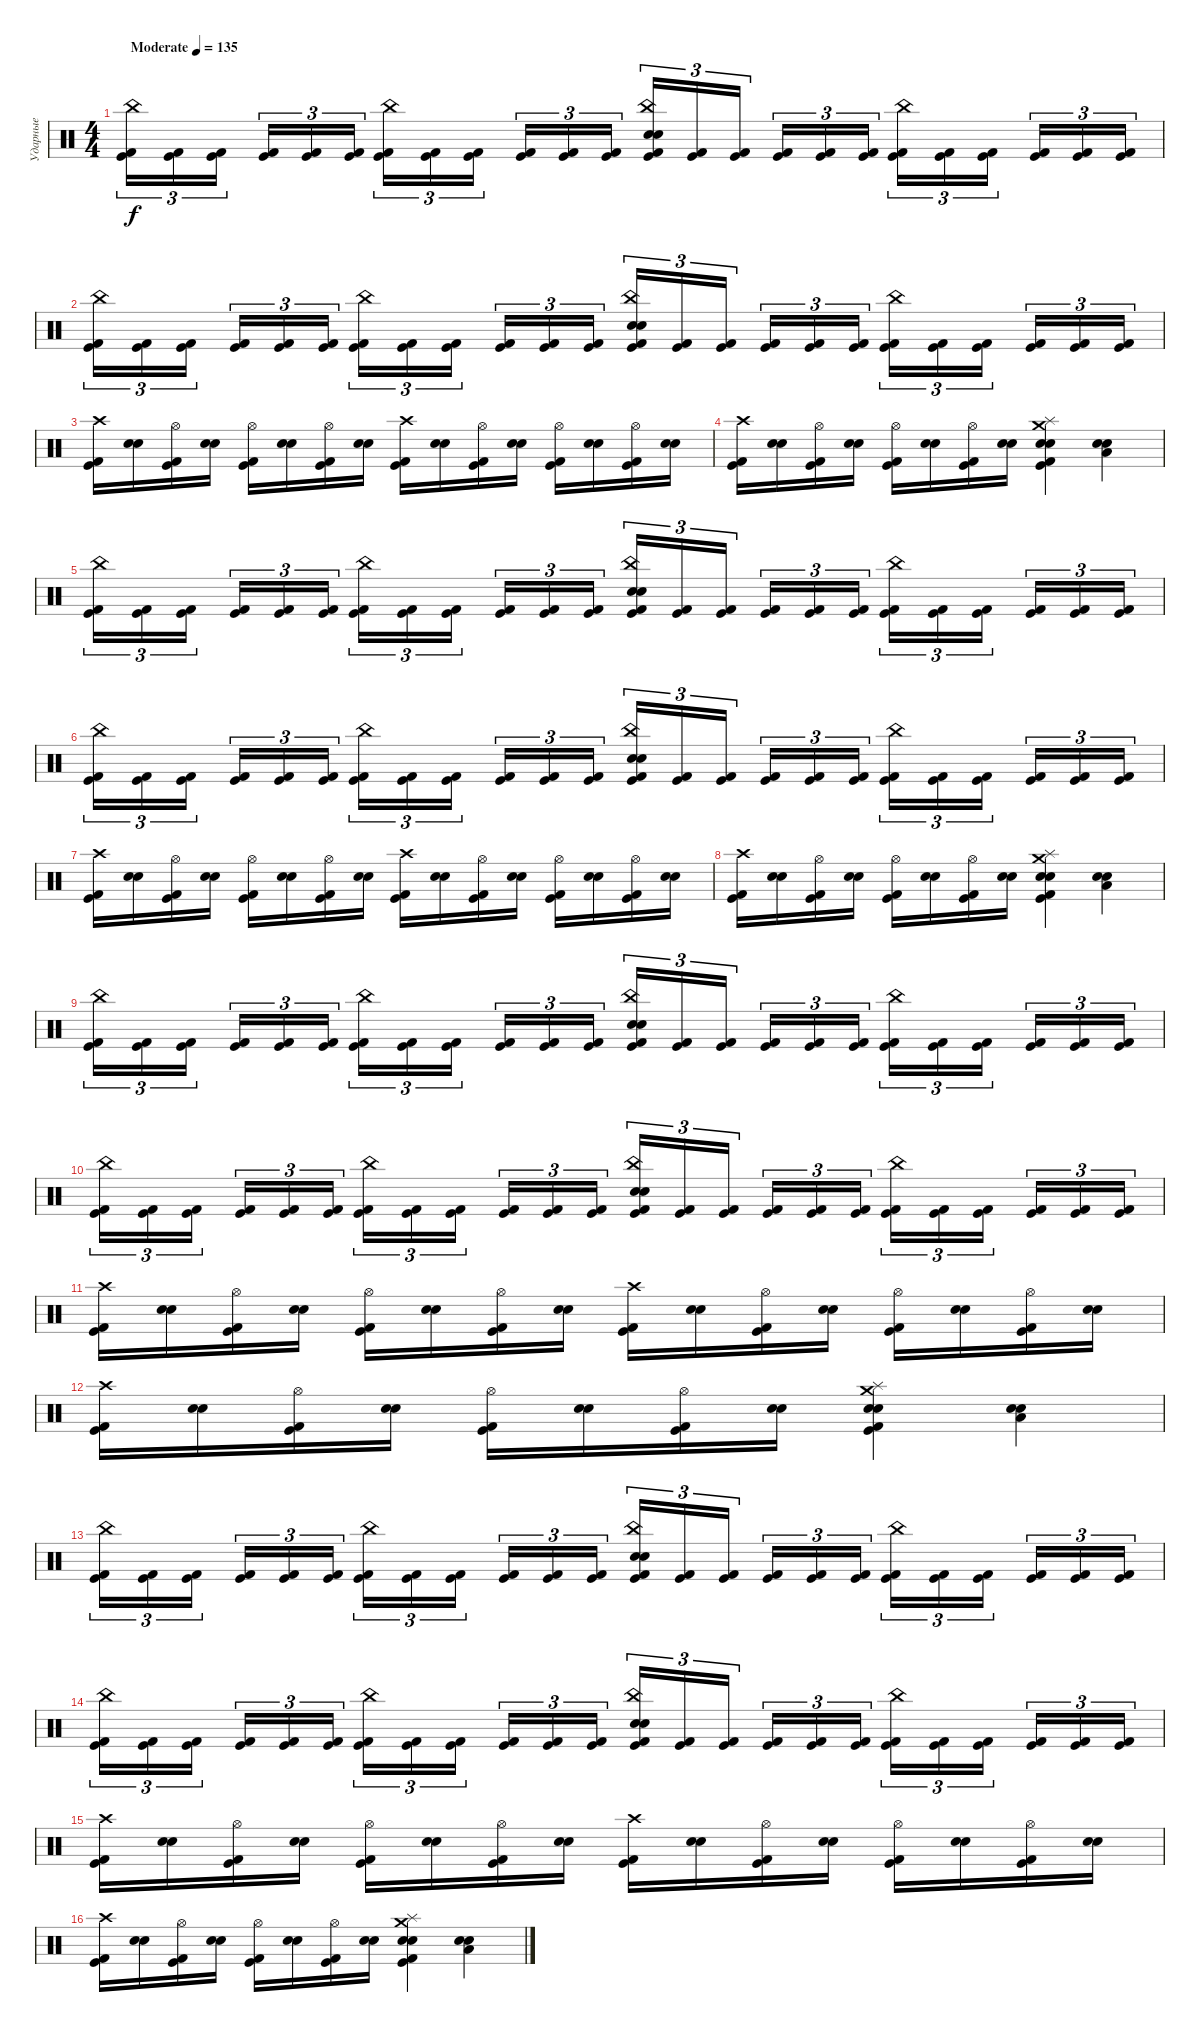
\track ("Ударные" "Ударные") {instrument percussion}
\staff {score}
\articulation defaults
\ts (4 4)
\tempo (135 "Moderate")
\clef neutral
\ks c
("Kick (hit) 2" "Kick (hit)" "China (hit)").16{tu (3 2) dy f} ("Kick (hit) 2" "Kick (hit)").16{tu (3 2)} ("Kick (hit) 2" "Kick (hit)").16{tu (3 2) beam splitsecondary} ("Kick (hit) 2" "Kick (hit)").16{tu (3 2)} ("Kick (hit) 2" "Kick (hit)").16{tu (3 2)} ("Kick (hit) 2" "Kick (hit)").16{tu (3 2)} ("Kick (hit) 2" "Kick (hit)" "China (hit)").16{tu (3 2)} ("Kick (hit) 2" "Kick (hit)").16{tu (3 2)} ("Kick (hit) 2" "Kick (hit)").16{tu (3 2) beam splitsecondary} ("Kick (hit) 2" "Kick (hit)").16{tu (3 2)} ("Kick (hit) 2" "Kick (hit)").16{tu (3 2)} ("Kick (hit) 2" "Kick (hit)").16{tu (3 2)} ("Kick (hit) 2" "Kick (hit)" "Electric Snare (hit)" "Snare (hit) 2" "China (hit)").16{tu (3 2)} ("Kick (hit) 2" "Kick (hit)").16{tu (3 2)} ("Kick (hit) 2" "Kick (hit)").16{tu (3 2) beam splitsecondary} ("Kick (hit) 2" "Kick (hit)").16{tu (3 2)} ("Kick (hit) 2" "Kick (hit)").16{tu (3 2)} ("Kick (hit) 2" "Kick (hit)").16{tu (3 2)} ("Kick (hit) 2" "Kick (hit)" "China (hit)").16{tu (3 2)} ("Kick (hit) 2" "Kick (hit)").16{tu (3 2)} ("Kick (hit) 2" "Kick (hit)").16{tu (3 2) beam splitsecondary} ("Kick (hit) 2" "Kick (hit)").16{tu (3 2)} ("Kick (hit) 2" "Kick (hit)").16{tu (3 2)} ("Kick (hit) 2" "Kick (hit)").16{tu (3 2)} |
("Kick (hit) 2" "Kick (hit)" "China (hit)").16{tu (3 2)} ("Kick (hit) 2" "Kick (hit)").16{tu (3 2)} ("Kick (hit) 2" "Kick (hit)").16{tu (3 2) beam splitsecondary} ("Kick (hit) 2" "Kick (hit)").16{tu (3 2)} ("Kick (hit) 2" "Kick (hit)").16{tu (3 2)} ("Kick (hit) 2" "Kick (hit)").16{tu (3 2)} ("Kick (hit) 2" "Kick (hit)" "China (hit)").16{tu (3 2)} ("Kick (hit) 2" "Kick (hit)").16{tu (3 2)} ("Kick (hit) 2" "Kick (hit)").16{tu (3 2) beam splitsecondary} ("Kick (hit) 2" "Kick (hit)").16{tu (3 2)} ("Kick (hit) 2" "Kick (hit)").16{tu (3 2)} ("Kick (hit) 2" "Kick (hit)").16{tu (3 2)} ("Kick (hit) 2" "Kick (hit)" "Electric Snare (hit)" "Snare (hit) 2" "China (hit)").16{tu (3 2)} ("Kick (hit) 2" "Kick (hit)").16{tu (3 2)} ("Kick (hit) 2" "Kick (hit)").16{tu (3 2) beam splitsecondary} ("Kick (hit) 2" "Kick (hit)").16{tu (3 2)} ("Kick (hit) 2" "Kick (hit)").16{tu (3 2)} ("Kick (hit) 2" "Kick (hit)").16{tu (3 2)} ("Kick (hit) 2" "Kick (hit)" "China (hit)").16{tu (3 2)} ("Kick (hit) 2" "Kick (hit)").16{tu (3 2)} ("Kick (hit) 2" "Kick (hit)").16{tu (3 2) beam splitsecondary} ("Kick (hit) 2" "Kick (hit)").16{tu (3 2)} ("Kick (hit) 2" "Kick (hit)").16{tu (3 2)} ("Kick (hit) 2" "Kick (hit)").16{tu (3 2)} |
("Kick (hit) 2" "Kick (hit)" "Crash high (hit)").16 ("Electric Snare (hit)" "Snare (hit) 2").16 ("Kick (hit) 2" "Kick (hit)" "Hi-Hat (open)").16 ("Electric Snare (hit)" "Snare (hit) 2").16 ("Kick (hit) 2" "Kick (hit)" "Hi-Hat (open)").16 ("Electric Snare (hit)" "Snare (hit) 2").16 ("Kick (hit) 2" "Kick (hit)" "Hi-Hat (open)").16 ("Electric Snare (hit)" "Snare (hit) 2").16 ("Kick (hit) 2" "Kick (hit)" "Crash high (hit)").16 ("Electric Snare (hit)" "Snare (hit) 2").16 ("Kick (hit) 2" "Kick (hit)" "Hi-Hat (open)").16 ("Electric Snare (hit)" "Snare (hit) 2").16 ("Kick (hit) 2" "Kick (hit)" "Hi-Hat (open)").16 ("Electric Snare (hit)" "Snare (hit) 2").16 ("Kick (hit) 2" "Kick (hit)" "Hi-Hat (open)").16 ("Electric Snare (hit)" "Snare (hit) 2").16 |
("Kick (hit) 2" "Kick (hit)" "Crash high (hit)").16 ("Electric Snare (hit)" "Snare (hit) 2").16 ("Kick (hit) 2" "Kick (hit)" "Hi-Hat (open)").16 ("Electric Snare (hit)" "Snare (hit) 2").16 ("Kick (hit) 2" "Kick (hit)" "Hi-Hat (open)").16 ("Electric Snare (hit)" "Snare (hit) 2").16 ("Kick (hit) 2" "Kick (hit)" "Hi-Hat (open)").16 ("Electric Snare (hit)" "Snare (hit) 2").16 ("Kick (hit)" "Kick (hit) 2" "Electric Snare (hit)" "Snare (hit) 2" "Splash (hit)" "Crash medium (hit)").4 ("Electric Snare (hit)" "Low Floor Tom (hit)" "Snare (hit) 2").4 |
("Kick (hit) 2" "Kick (hit)" "China (hit)").16{tu (3 2)} ("Kick (hit) 2" "Kick (hit)").16{tu (3 2)} ("Kick (hit) 2" "Kick (hit)").16{tu (3 2) beam splitsecondary} ("Kick (hit) 2" "Kick (hit)").16{tu (3 2)} ("Kick (hit) 2" "Kick (hit)").16{tu (3 2)} ("Kick (hit) 2" "Kick (hit)").16{tu (3 2)} ("Kick (hit) 2" "Kick (hit)" "China (hit)").16{tu (3 2)} ("Kick (hit) 2" "Kick (hit)").16{tu (3 2)} ("Kick (hit) 2" "Kick (hit)").16{tu (3 2) beam splitsecondary} ("Kick (hit) 2" "Kick (hit)").16{tu (3 2)} ("Kick (hit) 2" "Kick (hit)").16{tu (3 2)} ("Kick (hit) 2" "Kick (hit)").16{tu (3 2)} ("Kick (hit) 2" "Kick (hit)" "Electric Snare (hit)" "Snare (hit) 2" "China (hit)").16{tu (3 2)} ("Kick (hit) 2" "Kick (hit)").16{tu (3 2)} ("Kick (hit) 2" "Kick (hit)").16{tu (3 2) beam splitsecondary} ("Kick (hit) 2" "Kick (hit)").16{tu (3 2)} ("Kick (hit) 2" "Kick (hit)").16{tu (3 2)} ("Kick (hit) 2" "Kick (hit)").16{tu (3 2)} ("Kick (hit) 2" "Kick (hit)" "China (hit)").16{tu (3 2)} ("Kick (hit) 2" "Kick (hit)").16{tu (3 2)} ("Kick (hit) 2" "Kick (hit)").16{tu (3 2) beam splitsecondary} ("Kick (hit) 2" "Kick (hit)").16{tu (3 2)} ("Kick (hit) 2" "Kick (hit)").16{tu (3 2)} ("Kick (hit) 2" "Kick (hit)").16{tu (3 2)} |
("Kick (hit) 2" "Kick (hit)" "China (hit)").16{tu (3 2)} ("Kick (hit) 2" "Kick (hit)").16{tu (3 2)} ("Kick (hit) 2" "Kick (hit)").16{tu (3 2) beam splitsecondary} ("Kick (hit) 2" "Kick (hit)").16{tu (3 2)} ("Kick (hit) 2" "Kick (hit)").16{tu (3 2)} ("Kick (hit) 2" "Kick (hit)").16{tu (3 2)} ("Kick (hit) 2" "Kick (hit)" "China (hit)").16{tu (3 2)} ("Kick (hit) 2" "Kick (hit)").16{tu (3 2)} ("Kick (hit) 2" "Kick (hit)").16{tu (3 2) beam splitsecondary} ("Kick (hit) 2" "Kick (hit)").16{tu (3 2)} ("Kick (hit) 2" "Kick (hit)").16{tu (3 2)} ("Kick (hit) 2" "Kick (hit)").16{tu (3 2)} ("Kick (hit) 2" "Kick (hit)" "Electric Snare (hit)" "Snare (hit) 2" "China (hit)").16{tu (3 2)} ("Kick (hit) 2" "Kick (hit)").16{tu (3 2)} ("Kick (hit) 2" "Kick (hit)").16{tu (3 2) beam splitsecondary} ("Kick (hit) 2" "Kick (hit)").16{tu (3 2)} ("Kick (hit) 2" "Kick (hit)").16{tu (3 2)} ("Kick (hit) 2" "Kick (hit)").16{tu (3 2)} ("Kick (hit) 2" "Kick (hit)" "China (hit)").16{tu (3 2)} ("Kick (hit) 2" "Kick (hit)").16{tu (3 2)} ("Kick (hit) 2" "Kick (hit)").16{tu (3 2) beam splitsecondary} ("Kick (hit) 2" "Kick (hit)").16{tu (3 2)} ("Kick (hit) 2" "Kick (hit)").16{tu (3 2)} ("Kick (hit) 2" "Kick (hit)").16{tu (3 2)} |
("Kick (hit) 2" "Kick (hit)" "Crash high (hit)").16 ("Electric Snare (hit)" "Snare (hit) 2").16 ("Kick (hit) 2" "Kick (hit)" "Hi-Hat (open)").16 ("Electric Snare (hit)" "Snare (hit) 2").16 ("Kick (hit) 2" "Kick (hit)" "Hi-Hat (open)").16 ("Electric Snare (hit)" "Snare (hit) 2").16 ("Kick (hit) 2" "Kick (hit)" "Hi-Hat (open)").16 ("Electric Snare (hit)" "Snare (hit) 2").16 ("Kick (hit) 2" "Kick (hit)" "Crash high (hit)").16 ("Electric Snare (hit)" "Snare (hit) 2").16 ("Kick (hit) 2" "Kick (hit)" "Hi-Hat (open)").16 ("Electric Snare (hit)" "Snare (hit) 2").16 ("Kick (hit) 2" "Kick (hit)" "Hi-Hat (open)").16 ("Electric Snare (hit)" "Snare (hit) 2").16 ("Kick (hit) 2" "Kick (hit)" "Hi-Hat (open)").16 ("Electric Snare (hit)" "Snare (hit) 2").16 |
("Kick (hit) 2" "Kick (hit)" "Crash high (hit)").16 ("Electric Snare (hit)" "Snare (hit) 2").16 ("Kick (hit) 2" "Kick (hit)" "Hi-Hat (open)").16 ("Electric Snare (hit)" "Snare (hit) 2").16 ("Kick (hit) 2" "Kick (hit)" "Hi-Hat (open)").16 ("Electric Snare (hit)" "Snare (hit) 2").16 ("Kick (hit) 2" "Kick (hit)" "Hi-Hat (open)").16 ("Electric Snare (hit)" "Snare (hit) 2").16 ("Kick (hit)" "Kick (hit) 2" "Electric Snare (hit)" "Snare (hit) 2" "Splash (hit)" "Crash medium (hit)").4 ("Electric Snare (hit)" "Low Floor Tom (hit)" "Snare (hit) 2").4 |
("Kick (hit) 2" "Kick (hit)" "China (hit)").16{tu (3 2)} ("Kick (hit) 2" "Kick (hit)").16{tu (3 2)} ("Kick (hit) 2" "Kick (hit)").16{tu (3 2) beam splitsecondary} ("Kick (hit) 2" "Kick (hit)").16{tu (3 2)} ("Kick (hit) 2" "Kick (hit)").16{tu (3 2)} ("Kick (hit) 2" "Kick (hit)").16{tu (3 2)} ("Kick (hit) 2" "Kick (hit)" "China (hit)").16{tu (3 2)} ("Kick (hit) 2" "Kick (hit)").16{tu (3 2)} ("Kick (hit) 2" "Kick (hit)").16{tu (3 2) beam splitsecondary} ("Kick (hit) 2" "Kick (hit)").16{tu (3 2)} ("Kick (hit) 2" "Kick (hit)").16{tu (3 2)} ("Kick (hit) 2" "Kick (hit)").16{tu (3 2)} ("Kick (hit) 2" "Kick (hit)" "Electric Snare (hit)" "Snare (hit) 2" "China (hit)").16{tu (3 2)} ("Kick (hit) 2" "Kick (hit)").16{tu (3 2)} ("Kick (hit) 2" "Kick (hit)").16{tu (3 2) beam splitsecondary} ("Kick (hit) 2" "Kick (hit)").16{tu (3 2)} ("Kick (hit) 2" "Kick (hit)").16{tu (3 2)} ("Kick (hit) 2" "Kick (hit)").16{tu (3 2)} ("Kick (hit) 2" "Kick (hit)" "China (hit)").16{tu (3 2)} ("Kick (hit) 2" "Kick (hit)").16{tu (3 2)} ("Kick (hit) 2" "Kick (hit)").16{tu (3 2) beam splitsecondary} ("Kick (hit) 2" "Kick (hit)").16{tu (3 2)} ("Kick (hit) 2" "Kick (hit)").16{tu (3 2)} ("Kick (hit) 2" "Kick (hit)").16{tu (3 2)} |
("Kick (hit) 2" "Kick (hit)" "China (hit)").16{tu (3 2)} ("Kick (hit) 2" "Kick (hit)").16{tu (3 2)} ("Kick (hit) 2" "Kick (hit)").16{tu (3 2) beam splitsecondary} ("Kick (hit) 2" "Kick (hit)").16{tu (3 2)} ("Kick (hit) 2" "Kick (hit)").16{tu (3 2)} ("Kick (hit) 2" "Kick (hit)").16{tu (3 2)} ("Kick (hit) 2" "Kick (hit)" "China (hit)").16{tu (3 2)} ("Kick (hit) 2" "Kick (hit)").16{tu (3 2)} ("Kick (hit) 2" "Kick (hit)").16{tu (3 2) beam splitsecondary} ("Kick (hit) 2" "Kick (hit)").16{tu (3 2)} ("Kick (hit) 2" "Kick (hit)").16{tu (3 2)} ("Kick (hit) 2" "Kick (hit)").16{tu (3 2)} ("Kick (hit) 2" "Kick (hit)" "Electric Snare (hit)" "Snare (hit) 2" "China (hit)").16{tu (3 2)} ("Kick (hit) 2" "Kick (hit)").16{tu (3 2)} ("Kick (hit) 2" "Kick (hit)").16{tu (3 2) beam splitsecondary} ("Kick (hit) 2" "Kick (hit)").16{tu (3 2)} ("Kick (hit) 2" "Kick (hit)").16{tu (3 2)} ("Kick (hit) 2" "Kick (hit)").16{tu (3 2)} ("Kick (hit) 2" "Kick (hit)" "China (hit)").16{tu (3 2)} ("Kick (hit) 2" "Kick (hit)").16{tu (3 2)} ("Kick (hit) 2" "Kick (hit)").16{tu (3 2) beam splitsecondary} ("Kick (hit) 2" "Kick (hit)").16{tu (3 2)} ("Kick (hit) 2" "Kick (hit)").16{tu (3 2)} ("Kick (hit) 2" "Kick (hit)").16{tu (3 2)} |
("Kick (hit) 2" "Kick (hit)" "Crash high (hit)").16 ("Electric Snare (hit)" "Snare (hit) 2").16 ("Kick (hit) 2" "Kick (hit)" "Hi-Hat (open)").16 ("Electric Snare (hit)" "Snare (hit) 2").16 ("Kick (hit) 2" "Kick (hit)" "Hi-Hat (open)").16 ("Electric Snare (hit)" "Snare (hit) 2").16 ("Kick (hit) 2" "Kick (hit)" "Hi-Hat (open)").16 ("Electric Snare (hit)" "Snare (hit) 2").16 ("Kick (hit) 2" "Kick (hit)" "Crash high (hit)").16 ("Electric Snare (hit)" "Snare (hit) 2").16 ("Kick (hit) 2" "Kick (hit)" "Hi-Hat (open)").16 ("Electric Snare (hit)" "Snare (hit) 2").16 ("Kick (hit) 2" "Kick (hit)" "Hi-Hat (open)").16 ("Electric Snare (hit)" "Snare (hit) 2").16 ("Kick (hit) 2" "Kick (hit)" "Hi-Hat (open)").16 ("Electric Snare (hit)" "Snare (hit) 2").16 |
("Kick (hit) 2" "Kick (hit)" "Crash high (hit)").16 ("Electric Snare (hit)" "Snare (hit) 2").16 ("Kick (hit) 2" "Kick (hit)" "Hi-Hat (open)").16 ("Electric Snare (hit)" "Snare (hit) 2").16 ("Kick (hit) 2" "Kick (hit)" "Hi-Hat (open)").16 ("Electric Snare (hit)" "Snare (hit) 2").16 ("Kick (hit) 2" "Kick (hit)" "Hi-Hat (open)").16 ("Electric Snare (hit)" "Snare (hit) 2").16 ("Kick (hit)" "Kick (hit) 2" "Electric Snare (hit)" "Snare (hit) 2" "Splash (hit)" "Crash medium (hit)").4 ("Electric Snare (hit)" "Low Floor Tom (hit)" "Snare (hit) 2").4 |
("Kick (hit) 2" "Kick (hit)" "China (hit)").16{tu (3 2)} ("Kick (hit) 2" "Kick (hit)").16{tu (3 2)} ("Kick (hit) 2" "Kick (hit)").16{tu (3 2) beam splitsecondary} ("Kick (hit) 2" "Kick (hit)").16{tu (3 2)} ("Kick (hit) 2" "Kick (hit)").16{tu (3 2)} ("Kick (hit) 2" "Kick (hit)").16{tu (3 2)} ("Kick (hit) 2" "Kick (hit)" "China (hit)").16{tu (3 2)} ("Kick (hit) 2" "Kick (hit)").16{tu (3 2)} ("Kick (hit) 2" "Kick (hit)").16{tu (3 2) beam splitsecondary} ("Kick (hit) 2" "Kick (hit)").16{tu (3 2)} ("Kick (hit) 2" "Kick (hit)").16{tu (3 2)} ("Kick (hit) 2" "Kick (hit)").16{tu (3 2)} ("Kick (hit) 2" "Kick (hit)" "Electric Snare (hit)" "Snare (hit) 2" "China (hit)").16{tu (3 2)} ("Kick (hit) 2" "Kick (hit)").16{tu (3 2)} ("Kick (hit) 2" "Kick (hit)").16{tu (3 2) beam splitsecondary} ("Kick (hit) 2" "Kick (hit)").16{tu (3 2)} ("Kick (hit) 2" "Kick (hit)").16{tu (3 2)} ("Kick (hit) 2" "Kick (hit)").16{tu (3 2)} ("Kick (hit) 2" "Kick (hit)" "China (hit)").16{tu (3 2)} ("Kick (hit) 2" "Kick (hit)").16{tu (3 2)} ("Kick (hit) 2" "Kick (hit)").16{tu (3 2) beam splitsecondary} ("Kick (hit) 2" "Kick (hit)").16{tu (3 2)} ("Kick (hit) 2" "Kick (hit)").16{tu (3 2)} ("Kick (hit) 2" "Kick (hit)").16{tu (3 2)} |
("Kick (hit) 2" "Kick (hit)" "China (hit)").16{tu (3 2)} ("Kick (hit) 2" "Kick (hit)").16{tu (3 2)} ("Kick (hit) 2" "Kick (hit)").16{tu (3 2) beam splitsecondary} ("Kick (hit) 2" "Kick (hit)").16{tu (3 2)} ("Kick (hit) 2" "Kick (hit)").16{tu (3 2)} ("Kick (hit) 2" "Kick (hit)").16{tu (3 2)} ("Kick (hit) 2" "Kick (hit)" "China (hit)").16{tu (3 2)} ("Kick (hit) 2" "Kick (hit)").16{tu (3 2)} ("Kick (hit) 2" "Kick (hit)").16{tu (3 2) beam splitsecondary} ("Kick (hit) 2" "Kick (hit)").16{tu (3 2)} ("Kick (hit) 2" "Kick (hit)").16{tu (3 2)} ("Kick (hit) 2" "Kick (hit)").16{tu (3 2)} ("Kick (hit) 2" "Kick (hit)" "Electric Snare (hit)" "Snare (hit) 2" "China (hit)").16{tu (3 2)} ("Kick (hit) 2" "Kick (hit)").16{tu (3 2)} ("Kick (hit) 2" "Kick (hit)").16{tu (3 2) beam splitsecondary} ("Kick (hit) 2" "Kick (hit)").16{tu (3 2)} ("Kick (hit) 2" "Kick (hit)").16{tu (3 2)} ("Kick (hit) 2" "Kick (hit)").16{tu (3 2)} ("Kick (hit) 2" "Kick (hit)" "China (hit)").16{tu (3 2)} ("Kick (hit) 2" "Kick (hit)").16{tu (3 2)} ("Kick (hit) 2" "Kick (hit)").16{tu (3 2) beam splitsecondary} ("Kick (hit) 2" "Kick (hit)").16{tu (3 2)} ("Kick (hit) 2" "Kick (hit)").16{tu (3 2)} ("Kick (hit) 2" "Kick (hit)").16{tu (3 2)} |
("Kick (hit) 2" "Kick (hit)" "Crash high (hit)").16 ("Electric Snare (hit)" "Snare (hit) 2").16 ("Kick (hit) 2" "Kick (hit)" "Hi-Hat (open)").16 ("Electric Snare (hit)" "Snare (hit) 2").16 ("Kick (hit) 2" "Kick (hit)" "Hi-Hat (open)").16 ("Electric Snare (hit)" "Snare (hit) 2").16 ("Kick (hit) 2" "Kick (hit)" "Hi-Hat (open)").16 ("Electric Snare (hit)" "Snare (hit) 2").16 ("Kick (hit) 2" "Kick (hit)" "Crash high (hit)").16 ("Electric Snare (hit)" "Snare (hit) 2").16 ("Kick (hit) 2" "Kick (hit)" "Hi-Hat (open)").16 ("Electric Snare (hit)" "Snare (hit) 2").16 ("Kick (hit) 2" "Kick (hit)" "Hi-Hat (open)").16 ("Electric Snare (hit)" "Snare (hit) 2").16 ("Kick (hit) 2" "Kick (hit)" "Hi-Hat (open)").16 ("Electric Snare (hit)" "Snare (hit) 2").16 |
("Kick (hit) 2" "Kick (hit)" "Crash high (hit)").16 ("Electric Snare (hit)" "Snare (hit) 2").16 ("Kick (hit) 2" "Kick (hit)" "Hi-Hat (open)").16 ("Electric Snare (hit)" "Snare (hit) 2").16 ("Kick (hit) 2" "Kick (hit)" "Hi-Hat (open)").16 ("Electric Snare (hit)" "Snare (hit) 2").16 ("Kick (hit) 2" "Kick (hit)" "Hi-Hat (open)").16 ("Electric Snare (hit)" "Snare (hit) 2").16 ("Kick (hit)" "Kick (hit) 2" "Electric Snare (hit)" "Snare (hit) 2" "Splash (hit)" "Crash medium (hit)").4 ("Electric Snare (hit)" "Low Floor Tom (hit)" "Snare (hit) 2").4
